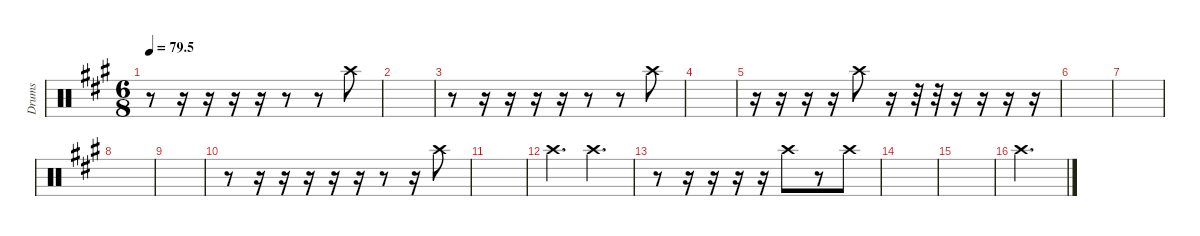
\defaultSystemsLayout 4
\hideDynamics
\bracketExtendMode nobrackets
\otherSystemsTrackNameOrientation horizontal
\track ("Left crash" "Drums") {instrument percussion}
\staff {score}
\articulation defaults
\ts (6 8)
\tempo
79.5
\accidentals auto
\clef neutral
\ottava regular
\simile none
\scale
0.333333
\ks a
r.8{dy f} r.16 r.16 r.16 r.16 r.8 r.8 "Crash high (hit)"{acc forcenatural}.8 |
\scale
0.333333 |
\scale
0.333333 r.8 r.16 r.16 r.16 r.16 r.8 r.8 "Crash high (hit)"{acc forcenatural}.8 |
\scale
0.333333 |
\scale
0.333333 r.16 r.16 r.16 r.16 "Crash high (hit)"{acc forcenatural}.8 r.16 r.32 r.32 r.16 r.16 r.16 r.16 |
\scale
0.333333 |
\scale
0.333333 |
\scale
0.333333 |
\scale
0.333333 |
\scale
0.333333 r.8 r.16 r.16 r.16 r.16 r.16 r.8 r.16 "Crash high (hit)"{acc forcenatural}.8 |
\scale
0.333333 |
\scale
0.333333 "Crash high (hit)"{acc forcenatural}.4{d} "Crash high (hit)"{acc forcenatural}.4{d} |
\scale
0.333333 r.8 r.16 r.16 r.16 r.16 "Crash high (hit)"{acc forcenatural}.8 r.8 "Crash high (hit)"{acc forcenatural}.8 |
\scale
0.333333 |
\scale
0.333333 |
\scale
0.333333 "Crash high (hit)"{acc forcenatural}.2{d}
